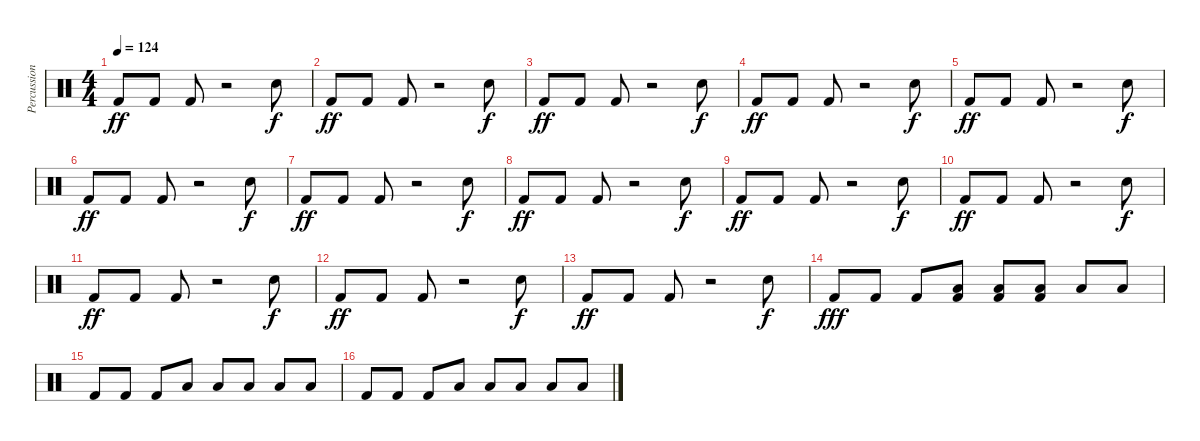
\track ("Percussion" "Percussion") {instrument percussion}
\staff {score}
\articulation defaults
\ts (4 4)
\tempo 124
\clef neutral
\ks c "Kick (hit) 2".8{dy ff} "Kick (hit) 2".8 "Kick (hit) 2".8
r.2 "Electric Snare (hit)".8{dy f} |
"Kick (hit) 2".8{dy ff} "Kick (hit) 2".8 "Kick (hit) 2".8 r.2 "Electric Snare (hit)".8{dy f} |
"Kick (hit) 2".8{dy ff} "Kick (hit) 2".8 "Kick (hit) 2".8 r.2 "Electric Snare (hit)".8{dy f} |
"Kick (hit) 2".8{dy ff} "Kick (hit) 2".8 "Kick (hit) 2".8 r.2 "Electric Snare (hit)".8{dy f} |
"Kick (hit) 2".8{dy ff} "Kick (hit) 2".8 "Kick (hit) 2".8 r.2 "Electric Snare (hit)".8{dy f} |
"Kick (hit) 2".8{dy ff} "Kick (hit) 2".8 "Kick (hit) 2".8 r.2 "Electric Snare (hit)".8{dy f} |
"Kick (hit) 2".8{dy ff} "Kick (hit) 2".8 "Kick (hit) 2".8 r.2 "Electric Snare (hit)".8{dy f} |
"Kick (hit) 2".8{dy ff} "Kick (hit) 2".8 "Kick (hit) 2".8 r.2 "Electric Snare (hit)".8{dy f} |
"Kick (hit) 2".8{dy ff} "Kick (hit) 2".8 "Kick (hit) 2".8 r.2 "Electric Snare (hit)".8{dy f} |
"Kick (hit) 2".8{dy ff} "Kick (hit) 2".8 "Kick (hit) 2".8 r.2 "Electric Snare (hit)".8{dy f} |
"Kick (hit) 2".8{dy ff} "Kick (hit) 2".8 "Kick (hit) 2".8 r.2 "Electric Snare (hit)".8{dy f} |
"Kick (hit) 2".8{dy ff} "Kick (hit) 2".8 "Kick (hit) 2".8 r.2 "Electric Snare (hit)".8{dy f} |
"Kick (hit) 2".8{dy ff} "Kick (hit) 2".8 "Kick (hit) 2".8 r.2 "Electric Snare (hit)".8{dy f} |
"Kick (hit) 2".8{dy fff} "Kick (hit) 2".8 "Kick (hit) 2".8 ("Kick (hit) 2" "Low Floor Tom (hit)").8 ("Kick (hit) 2" "Low Floor Tom (hit)").8 ("Kick (hit) 2" "Low Floor Tom (hit)").8 "Low Floor Tom (hit)".8 "Low Floor Tom (hit)".8 |
"Kick (hit) 2".8 "Kick (hit) 2".8 "Kick (hit) 2".8 "Low Floor Tom (hit)".8 "Low Floor Tom (hit)".8 "Low Floor Tom (hit)".8 "Low Floor Tom (hit)".8 "Low Floor Tom (hit)".8 |
"Kick (hit) 2".8 "Kick (hit) 2".8 "Kick (hit) 2".8 "Low Floor Tom (hit)".8 "Low Floor Tom (hit)".8 "Low Floor Tom (hit)".8 "Low Floor Tom (hit)".8 "Low Floor Tom (hit)".8
